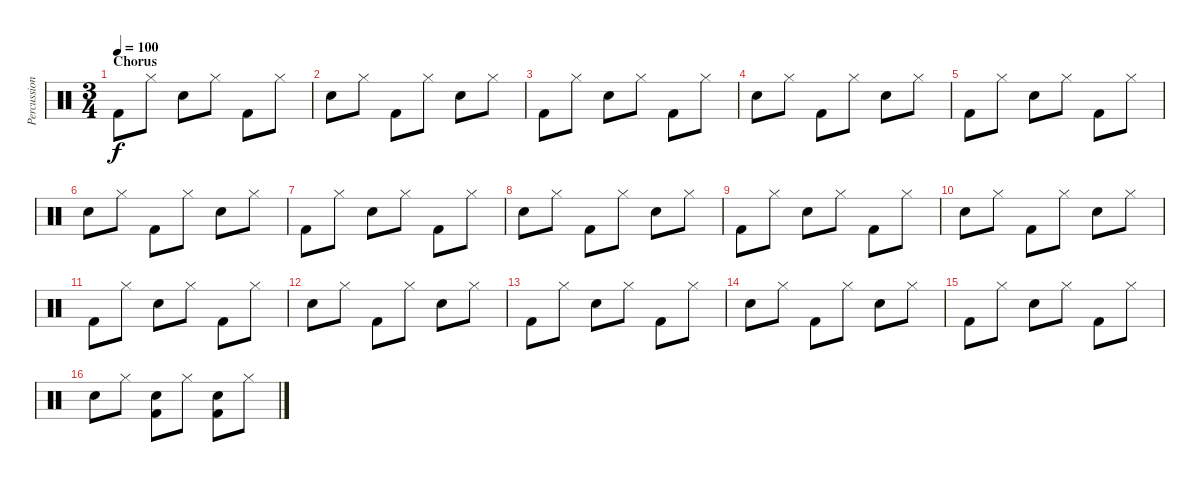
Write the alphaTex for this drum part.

\track ("Percussion" "Percussion") {instrument percussion}
\staff {score}
\articulation defaults
\ts (3 4)
\section ("" "Chorus")
\tempo 100
\clef neutral
\ks c "Kick (hit) 2".8{dy f} "Hi-Hat (closed)".8 "Snare (hit) 2".8 "Hi-Hat (closed)".8 "Kick (hit) 2".8 "Hi-Hat (closed)".8
|
"Snare (hit) 2".8 "Hi-Hat (closed)".8 "Kick (hit) 2".8 "Hi-Hat (closed)".8 "Snare (hit) 2".8 "Hi-Hat (closed)".8 |
"Kick (hit) 2".8 "Hi-Hat (closed)".8 "Snare (hit) 2".8 "Hi-Hat (closed)".8 "Kick (hit) 2".8 "Hi-Hat (closed)".8 |
"Snare (hit) 2".8 "Hi-Hat (closed)".8 "Kick (hit) 2".8 "Hi-Hat (closed)".8 "Snare (hit) 2".8 "Hi-Hat (closed)".8 |
"Kick (hit) 2".8 "Hi-Hat (closed)".8 "Snare (hit) 2".8 "Hi-Hat (closed)".8 "Kick (hit) 2".8 "Hi-Hat (closed)".8 |
"Snare (hit) 2".8 "Hi-Hat (closed)".8 "Kick (hit) 2".8 "Hi-Hat (closed)".8 "Snare (hit) 2".8 "Hi-Hat (closed)".8 |
"Kick (hit) 2".8 "Hi-Hat (closed)".8 "Snare (hit) 2".8 "Hi-Hat (closed)".8 "Kick (hit) 2".8 "Hi-Hat (closed)".8 |
"Snare (hit) 2".8 "Hi-Hat (closed)".8 "Kick (hit) 2".8 "Hi-Hat (closed)".8 "Snare (hit) 2".8 "Hi-Hat (closed)".8 |
"Kick (hit) 2".8 "Hi-Hat (closed)".8 "Snare (hit) 2".8 "Hi-Hat (closed)".8 "Kick (hit) 2".8 "Hi-Hat (closed)".8 |
"Snare (hit) 2".8 "Hi-Hat (closed)".8 "Kick (hit) 2".8 "Hi-Hat (closed)".8 "Snare (hit) 2".8 "Hi-Hat (closed)".8 |
"Kick (hit) 2".8 "Hi-Hat (closed)".8 "Snare (hit) 2".8 "Hi-Hat (closed)".8 "Kick (hit) 2".8 "Hi-Hat (closed)".8 |
"Snare (hit) 2".8 "Hi-Hat (closed)".8 "Kick (hit) 2".8 "Hi-Hat (closed)".8 "Snare (hit) 2".8 "Hi-Hat (closed)".8 |
"Kick (hit) 2".8 "Hi-Hat (closed)".8 "Snare (hit) 2".8 "Hi-Hat (closed)".8 "Kick (hit) 2".8 "Hi-Hat (closed)".8 |
"Snare (hit) 2".8 "Hi-Hat (closed)".8 "Kick (hit) 2".8 "Hi-Hat (closed)".8 "Snare (hit) 2".8 "Hi-Hat (closed)".8 |
"Kick (hit) 2".8 "Hi-Hat (closed)".8 "Snare (hit) 2".8 "Hi-Hat (closed)".8 "Kick (hit) 2".8 "Hi-Hat (closed)".8 |
"Snare (hit) 2".8 "Hi-Hat (closed)".8 ("Snare (hit) 2" "Kick (hit) 2").8 "Hi-Hat (closed)".8 ("Snare (hit) 2" "Kick (hit) 2").8 "Hi-Hat (closed)".8
